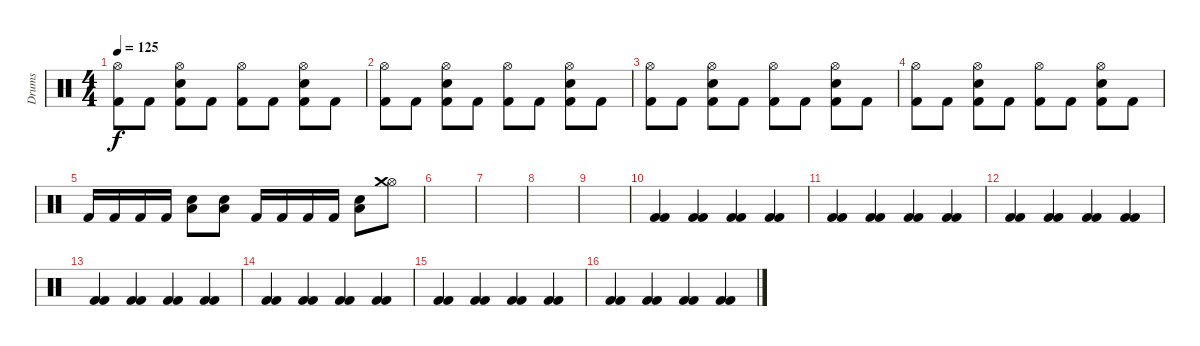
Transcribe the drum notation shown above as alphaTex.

\track ("Drums" "Drums") {instrument percussion}
\staff {score}
\articulation defaults
\ts (4 4)
\tempo 125
\clef neutral
\ks c
("Hi-Hat (open)" "Kick (hit) 2").8{dy f} "Kick (hit) 2".8 ("Hi-Hat (open)" "Electric Snare (hit)" "Kick (hit) 2").8 "Kick (hit) 2".8 ("Hi-Hat (open)" "Kick (hit) 2").8 "Kick (hit) 2".8 ("Hi-Hat (open)" "Electric Snare (hit)" "Kick (hit) 2").8 "Kick (hit) 2".8 |
("Hi-Hat (open)" "Kick (hit) 2").8 "Kick (hit) 2".8 ("Hi-Hat (open)" "Electric Snare (hit)" "Kick (hit) 2").8 "Kick (hit) 2".8 ("Hi-Hat (open)" "Kick (hit) 2").8 "Kick (hit) 2".8 ("Hi-Hat (open)" "Electric Snare (hit)" "Kick (hit) 2").8 "Kick (hit) 2".8 |
("Hi-Hat (open)" "Kick (hit) 2").8 "Kick (hit) 2".8 ("Hi-Hat (open)" "Electric Snare (hit)" "Kick (hit) 2").8 "Kick (hit) 2".8 ("Hi-Hat (open)" "Kick (hit) 2").8 "Kick (hit) 2".8 ("Hi-Hat (open)" "Electric Snare (hit)" "Kick (hit) 2").8 "Kick (hit) 2".8 |
("Hi-Hat (open)" "Kick (hit) 2").8 "Kick (hit) 2".8 ("Hi-Hat (open)" "Electric Snare (hit)" "Kick (hit) 2").8 "Kick (hit) 2".8 ("Hi-Hat (open)" "Kick (hit) 2").8 "Kick (hit) 2".8 ("Hi-Hat (open)" "Electric Snare (hit)" "Kick (hit) 2").8 "Kick (hit) 2".8 |
"Kick (hit) 2".16 "Kick (hit) 2".16 "Kick (hit) 2".16 "Kick (hit) 2".16 ("Low Floor Tom (hit)" "Electric Snare (hit)").8 ("Low Floor Tom (hit)" "Electric Snare (hit)").8 "Kick (hit) 2".16 "Kick (hit) 2".16 "Kick (hit) 2".16 "Kick (hit) 2".16 ("Low Floor Tom (hit)" "Electric Snare (hit)").8 ("Hi-Hat (open)" "Crash medium (hit)").8 |
|
|
|
|
("Kick (hit) 2" "Kick (hit) 2").4 ("Kick (hit) 2" "Kick (hit) 2").4 ("Kick (hit) 2" "Kick (hit) 2").4 ("Kick (hit) 2" "Kick (hit) 2").4 |
("Kick (hit) 2" "Kick (hit) 2").4 ("Kick (hit) 2" "Kick (hit) 2").4 ("Kick (hit) 2" "Kick (hit) 2").4 ("Kick (hit) 2" "Kick (hit) 2").4 |
("Kick (hit) 2" "Kick (hit) 2").4 ("Kick (hit) 2" "Kick (hit) 2").4 ("Kick (hit) 2" "Kick (hit) 2").4 ("Kick (hit) 2" "Kick (hit) 2").4 |
("Kick (hit) 2" "Kick (hit) 2").4 ("Kick (hit) 2" "Kick (hit) 2").4 ("Kick (hit) 2" "Kick (hit) 2").4 ("Kick (hit) 2" "Kick (hit) 2").4 |
("Kick (hit) 2" "Kick (hit) 2").4 ("Kick (hit) 2" "Kick (hit) 2").4 ("Kick (hit) 2" "Kick (hit) 2").4 ("Kick (hit) 2" "Kick (hit) 2").4 |
("Kick (hit) 2" "Kick (hit) 2").4 ("Kick (hit) 2" "Kick (hit) 2").4 ("Kick (hit) 2" "Kick (hit) 2").4 ("Kick (hit) 2" "Kick (hit) 2").4 |
("Kick (hit) 2" "Kick (hit) 2").4 ("Kick (hit) 2" "Kick (hit) 2").4 ("Kick (hit) 2" "Kick (hit) 2").4 ("Kick (hit) 2" "Kick (hit) 2").4
